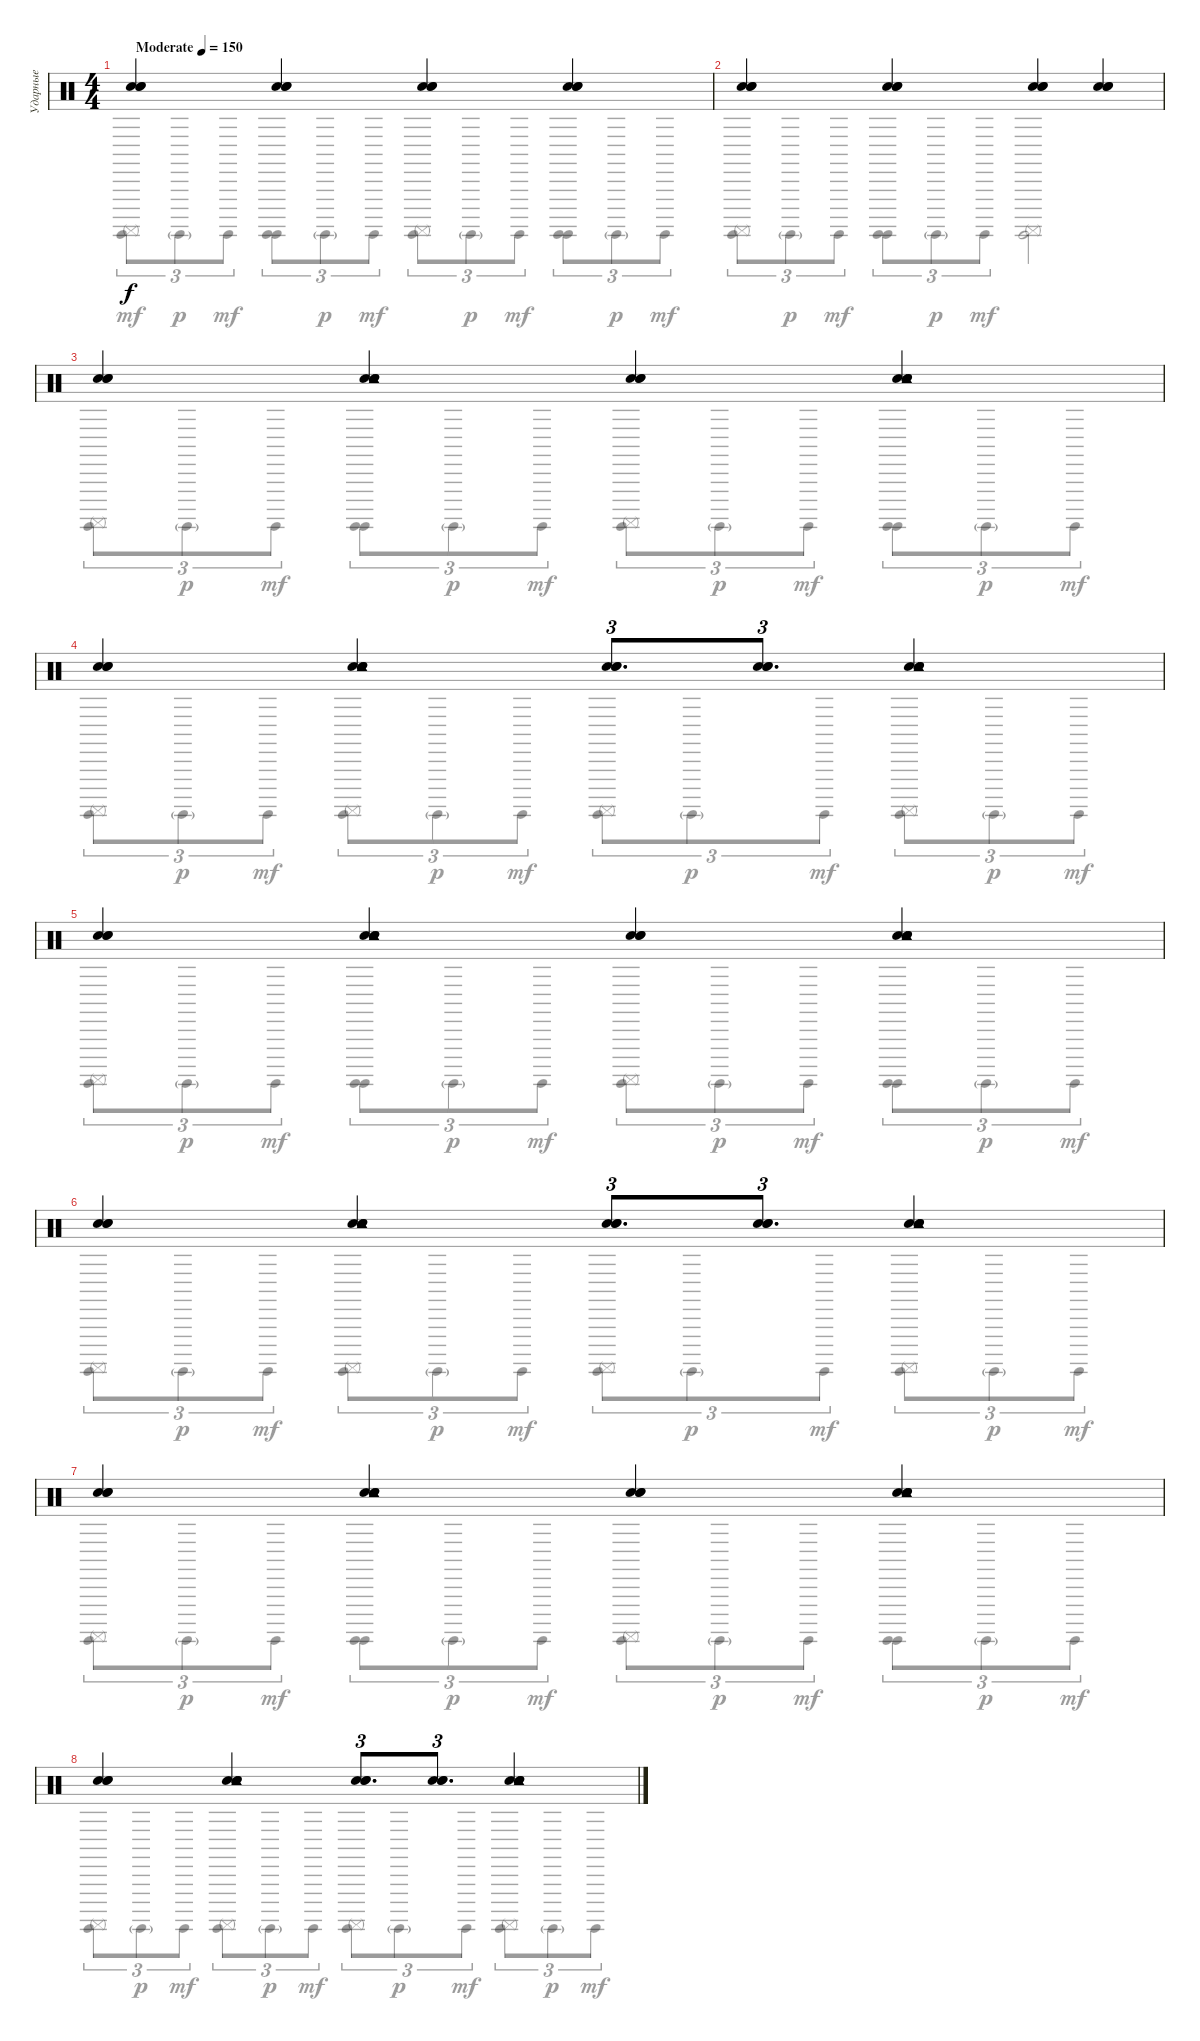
\track ("Ударные" "Ударные") {instrument percussion}
\staff {score}
\articulation defaults
\voice
\ts (4 4)
\tempo (150 "Moderate")
\clef neutral
\ks c
("Hand Clap (hit)" "Hand Clap (hit)" "Hand Clap (hit)").4{dy f} ("Hand Clap (hit)" "Hand Clap (hit)" "Hand Clap (hit)").4 ("Hand Clap (hit)" "Hand Clap (hit)" "Hand Clap (hit)").4 ("Hand Clap (hit)" "Hand Clap (hit)" "Hand Clap (hit)").4 |
("Hand Clap (hit)" "Hand Clap (hit)" "Hand Clap (hit)").4 ("Hand Clap (hit)" "Hand Clap (hit)" "Hand Clap (hit)").4 ("Hand Clap (hit)" "Hand Clap (hit)" "Hand Clap (hit)").4 ("Hand Clap (hit)" "Hand Clap (hit)" "Hand Clap (hit)").4 |
("Hand Clap (hit)" "Hand Clap (hit)" "Hand Clap (hit)").4 ("Hand Clap (hit)" "Hand Clap (hit)" "Hand Clap (hit)" "Tambourine (hit)" "Tambourine (hit)").4 ("Hand Clap (hit)" "Hand Clap (hit)" "Hand Clap (hit)").4 ("Hand Clap (hit)" "Hand Clap (hit)" "Hand Clap (hit)" "Tambourine (hit)" "Tambourine (hit)").4 |
("Hand Clap (hit)" "Hand Clap (hit)" "Hand Clap (hit)").4 ("Hand Clap (hit)" "Hand Clap (hit)" "Hand Clap (hit)" "Tambourine (hit)" "Tambourine (hit)").4 ("Hand Clap (hit)" "Hand Clap (hit)" "Hand Clap (hit)").8{d tu (3 2)} ("Hand Clap (hit)" "Hand Clap (hit)" "Hand Clap (hit)").8{d tu (3 2)} ("Hand Clap (hit)" "Hand Clap (hit)" "Hand Clap (hit)" "Tambourine (hit)" "Tambourine (hit)").4 |
("Hand Clap (hit)" "Hand Clap (hit)" "Hand Clap (hit)").4 ("Hand Clap (hit)" "Hand Clap (hit)" "Hand Clap (hit)" "Tambourine (hit)" "Tambourine (hit)").4 ("Hand Clap (hit)" "Hand Clap (hit)" "Hand Clap (hit)").4 ("Hand Clap (hit)" "Hand Clap (hit)" "Hand Clap (hit)" "Tambourine (hit)" "Tambourine (hit)").4 |
("Hand Clap (hit)" "Hand Clap (hit)" "Hand Clap (hit)").4 ("Hand Clap (hit)" "Hand Clap (hit)" "Hand Clap (hit)" "Tambourine (hit)" "Tambourine (hit)").4 ("Hand Clap (hit)" "Hand Clap (hit)" "Hand Clap (hit)").8{d tu (3 2)} ("Hand Clap (hit)" "Hand Clap (hit)" "Hand Clap (hit)").8{d tu (3 2)} ("Hand Clap (hit)" "Hand Clap (hit)" "Hand Clap (hit)" "Tambourine (hit)" "Tambourine (hit)").4 |
("Hand Clap (hit)" "Hand Clap (hit)" "Hand Clap (hit)").4 ("Hand Clap (hit)" "Hand Clap (hit)" "Hand Clap (hit)" "Tambourine (hit)" "Tambourine (hit)").4 ("Hand Clap (hit)" "Hand Clap (hit)" "Hand Clap (hit)").4 ("Hand Clap (hit)" "Hand Clap (hit)" "Hand Clap (hit)" "Tambourine (hit)" "Tambourine (hit)").4 |
("Hand Clap (hit)" "Hand Clap (hit)" "Hand Clap (hit)").4 ("Hand Clap (hit)" "Hand Clap (hit)" "Hand Clap (hit)" "Tambourine (hit)" "Tambourine (hit)").4 ("Hand Clap (hit)" "Hand Clap (hit)" "Hand Clap (hit)").8{d tu (3 2)} ("Hand Clap (hit)" "Hand Clap (hit)" "Hand Clap (hit)").8{d tu (3 2)} ("Hand Clap (hit)" "Hand Clap (hit)" "Hand Clap (hit)" "Tambourine (hit)" "Tambourine (hit)").4
\voice
\clef neutral
\ottava regular
\simile none
\ks c
("Surdo (hit)" "Surdo (mute)").8{tu (3 2) dy mf} "Surdo (hit)"{g}.8{tu (3 2) dy p} "Surdo (hit)".8{tu (3 2) dy mf} ("Surdo (hit)" "Surdo (hit)").8{tu (3 2)} "Surdo (hit)"{g}.8{tu (3 2) dy p} "Surdo (hit)".8{tu (3 2) dy mf} ("Surdo (hit)" "Surdo (mute)").8{tu (3 2)} "Surdo (hit)"{g}.8{tu (3 2) dy p} "Surdo (hit)".8{tu (3 2) dy mf} ("Surdo (hit)" "Surdo (hit)").8{tu (3 2)} "Surdo (hit)"{g}.8{tu (3 2) dy p} "Surdo (hit)".8{tu (3 2) dy mf} |
("Surdo (hit)" "Surdo (mute)").8{tu (3 2)} "Surdo (hit)"{g}.8{tu (3 2) dy p} "Surdo (hit)".8{tu (3 2) dy mf} ("Surdo (hit)" "Surdo (hit)").8{tu (3 2)} "Surdo (hit)"{g}.8{tu (3 2) dy p} "Surdo (hit)".8{tu (3 2) dy mf} ("Surdo (hit)" "Surdo (mute)").2 |
("Surdo (hit)" "Surdo (mute)").8{tu (3 2)} "Surdo (hit)"{g}.8{tu (3 2) dy p} "Surdo (hit)".8{tu (3 2) dy mf} ("Surdo (hit)" "Surdo (hit)").8{tu (3 2)} "Surdo (hit)"{g}.8{tu (3 2) dy p} "Surdo (hit)".8{tu (3 2) dy mf} ("Surdo (hit)" "Surdo (mute)").8{tu (3 2)} "Surdo (hit)"{g}.8{tu (3 2) dy p} "Surdo (hit)".8{tu (3 2) dy mf} ("Surdo (hit)" "Surdo (hit)").8{tu (3 2)} "Surdo (hit)"{g}.8{tu (3 2) dy p} "Surdo (hit)".8{tu (3 2) dy mf} |
("Surdo (hit)" "Surdo (mute)").8{tu (3 2)} "Surdo (hit)"{g}.8{tu (3 2) dy p} "Surdo (hit)".8{tu (3 2) dy mf} ("Surdo (hit)" "Surdo (mute)").8{tu (3 2)} "Surdo (hit)"{g}.8{tu (3 2) dy p} "Surdo (hit)".8{tu (3 2) dy mf} ("Surdo (hit)" "Surdo (mute)").8{tu (3 2)} "Surdo (hit)"{g}.8{tu (3 2) dy p} "Surdo (hit)".8{tu (3 2) dy mf} ("Surdo (hit)" "Surdo (mute)").8{tu (3 2)} "Surdo (hit)"{g}.8{tu (3 2) dy p} "Surdo (hit)".8{tu (3 2) dy mf} |
("Surdo (hit)" "Surdo (mute)").8{tu (3 2)} "Surdo (hit)"{g}.8{tu (3 2) dy p} "Surdo (hit)".8{tu (3 2) dy mf} ("Surdo (hit)" "Surdo (hit)").8{tu (3 2)} "Surdo (hit)"{g}.8{tu (3 2) dy p} "Surdo (hit)".8{tu (3 2) dy mf} ("Surdo (hit)" "Surdo (mute)").8{tu (3 2)} "Surdo (hit)"{g}.8{tu (3 2) dy p} "Surdo (hit)".8{tu (3 2) dy mf} ("Surdo (hit)" "Surdo (hit)").8{tu (3 2)} "Surdo (hit)"{g}.8{tu (3 2) dy p} "Surdo (hit)".8{tu (3 2) dy mf} |
("Surdo (hit)" "Surdo (mute)").8{tu (3 2)} "Surdo (hit)"{g}.8{tu (3 2) dy p} "Surdo (hit)".8{tu (3 2) dy mf} ("Surdo (hit)" "Surdo (mute)").8{tu (3 2)} "Surdo (hit)"{g}.8{tu (3 2) dy p} "Surdo (hit)".8{tu (3 2) dy mf} ("Surdo (hit)" "Surdo (mute)").8{tu (3 2)} "Surdo (hit)"{g}.8{tu (3 2) dy p} "Surdo (hit)".8{tu (3 2) dy mf} ("Surdo (hit)" "Surdo (mute)").8{tu (3 2)} "Surdo (hit)"{g}.8{tu (3 2) dy p} "Surdo (hit)".8{tu (3 2) dy mf} |
("Surdo (hit)" "Surdo (mute)").8{tu (3 2)} "Surdo (hit)"{g}.8{tu (3 2) dy p} "Surdo (hit)".8{tu (3 2) dy mf} ("Surdo (hit)" "Surdo (hit)").8{tu (3 2)} "Surdo (hit)"{g}.8{tu (3 2) dy p} "Surdo (hit)".8{tu (3 2) dy mf} ("Surdo (hit)" "Surdo (mute)").8{tu (3 2)} "Surdo (hit)"{g}.8{tu (3 2) dy p} "Surdo (hit)".8{tu (3 2) dy mf} ("Surdo (hit)" "Surdo (hit)").8{tu (3 2)} "Surdo (hit)"{g}.8{tu (3 2) dy p} "Surdo (hit)".8{tu (3 2) dy mf} |
("Surdo (hit)" "Surdo (mute)").8{tu (3 2)} "Surdo (hit)"{g}.8{tu (3 2) dy p} "Surdo (hit)".8{tu (3 2) dy mf} ("Surdo (hit)" "Surdo (mute)").8{tu (3 2)} "Surdo (hit)"{g}.8{tu (3 2) dy p} "Surdo (hit)".8{tu (3 2) dy mf} ("Surdo (hit)" "Surdo (mute)").8{tu (3 2)} "Surdo (hit)"{g}.8{tu (3 2) dy p} "Surdo (hit)".8{tu (3 2) dy mf} ("Surdo (hit)" "Surdo (mute)").8{tu (3 2)} "Surdo (hit)"{g}.8{tu (3 2) dy p} "Surdo (hit)".8{tu (3 2) dy mf}
